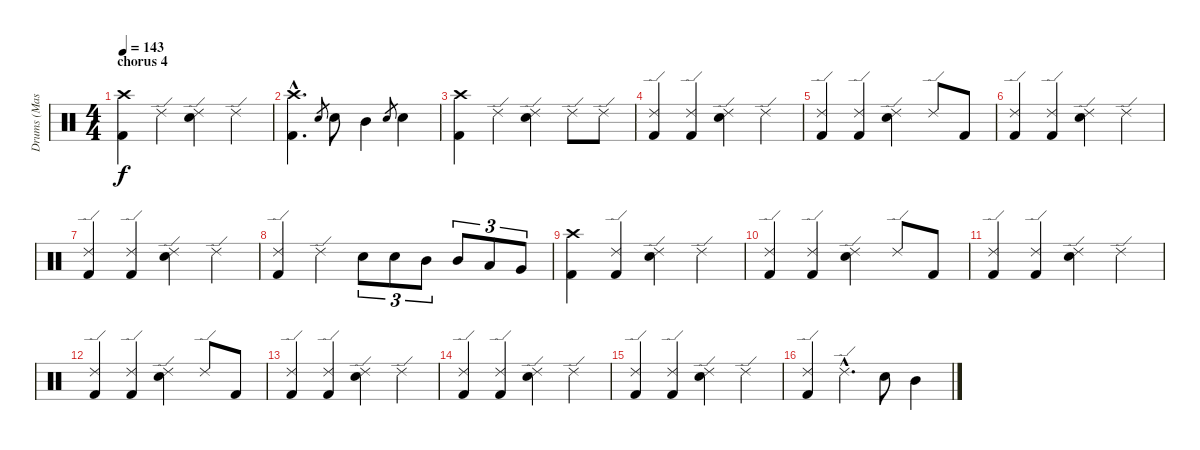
\track ("Drums (Mason)" "Drums (Mas") {instrument percussion}
\staff {score}
\articulation defaults
\ts (4 4)
\section ("" "chorus 4")
\tempo 143
\clef neutral
\ks c
("Crash high (hit)" "Kick (hit) 2").4{dy f} "Ride (edge) 2".4 ("Ride (edge) 2" "Electric Snare (hit)").4 "Ride (edge) 2".4 |
("Crash high (hit)"{hac} "Kick (hit) 2"{hac}).4{d} "Electric Snare (hit)".8{gr} "Electric Snare (hit)".8 "Mid Tom (hit)".4 "Electric Snare (hit)".8{gr} "Electric Snare (hit)".4 |
("Crash high (hit)" "Kick (hit) 2").4 "Ride (edge) 2".4 ("Ride (edge) 2" "Electric Snare (hit)").4 "Ride (edge) 2".8 "Ride (edge) 2".8 |
("Ride (edge) 2" "Kick (hit) 2").4 ("Ride (edge) 2" "Kick (hit) 2").4 ("Ride (edge) 2" "Electric Snare (hit)").4 "Ride (edge) 2".4 |
("Ride (edge) 2" "Kick (hit) 2").4 ("Ride (edge) 2" "Kick (hit) 2").4 ("Ride (edge) 2" "Electric Snare (hit)").4 "Ride (edge) 2".8 "Kick (hit) 2".8 |
("Ride (edge) 2" "Kick (hit) 2").4 ("Ride (edge) 2" "Kick (hit) 2").4 ("Ride (edge) 2" "Electric Snare (hit)").4 "Ride (edge) 2".4 |
("Ride (edge) 2" "Kick (hit) 2").4 ("Ride (edge) 2" "Kick (hit) 2").4 ("Ride (edge) 2" "Electric Snare (hit)").4 "Ride (edge) 2".4 |
("Ride (edge) 2" "Kick (hit) 2").4 "Ride (edge) 2".4 "Electric Snare (hit)".8{tu (3 2)} "Electric Snare (hit)".8{tu (3 2)} "Mid Tom (hit)".8{tu (3 2)} "Mid Tom (hit)".8{tu (3 2)} "Low Tom (hit)".8{tu (3 2)} "Very Low Tom (hit)".8{tu (3 2)} |
("Crash high (hit)" "Kick (hit) 2").4 ("Ride (edge) 2" "Kick (hit) 2").4 ("Ride (edge) 2" "Electric Snare (hit)").4 "Ride (edge) 2".4 |
("Ride (edge) 2" "Kick (hit) 2").4 ("Ride (edge) 2" "Kick (hit) 2").4 ("Ride (edge) 2" "Electric Snare (hit)").4 "Ride (edge) 2".8 "Kick (hit) 2".8 |
("Ride (edge) 2" "Kick (hit) 2").4 ("Ride (edge) 2" "Kick (hit) 2").4 ("Ride (edge) 2" "Electric Snare (hit)").4 "Ride (edge) 2".4 |
("Ride (edge) 2" "Kick (hit) 2").4 ("Ride (edge) 2" "Kick (hit) 2").4 ("Ride (edge) 2" "Electric Snare (hit)").4 "Ride (edge) 2".8 "Kick (hit) 2".8 |
("Ride (edge) 2" "Kick (hit) 2").4 ("Ride (edge) 2" "Kick (hit) 2").4 ("Ride (edge) 2" "Electric Snare (hit)").4 "Ride (edge) 2".4 |
("Ride (edge) 2" "Kick (hit) 2").4 ("Ride (edge) 2" "Kick (hit) 2").4 ("Ride (edge) 2" "Electric Snare (hit)").4 "Ride (edge) 2".4 |
("Ride (edge) 2" "Kick (hit) 2").4 ("Ride (edge) 2" "Kick (hit) 2").4 ("Ride (edge) 2" "Electric Snare (hit)").4 "Ride (edge) 2".4 |
("Ride (edge) 2" "Kick (hit) 2").4 "Ride (edge) 2"{hac}.4{d} "Electric Snare (hit)".8 "Mid Tom (hit)".4
